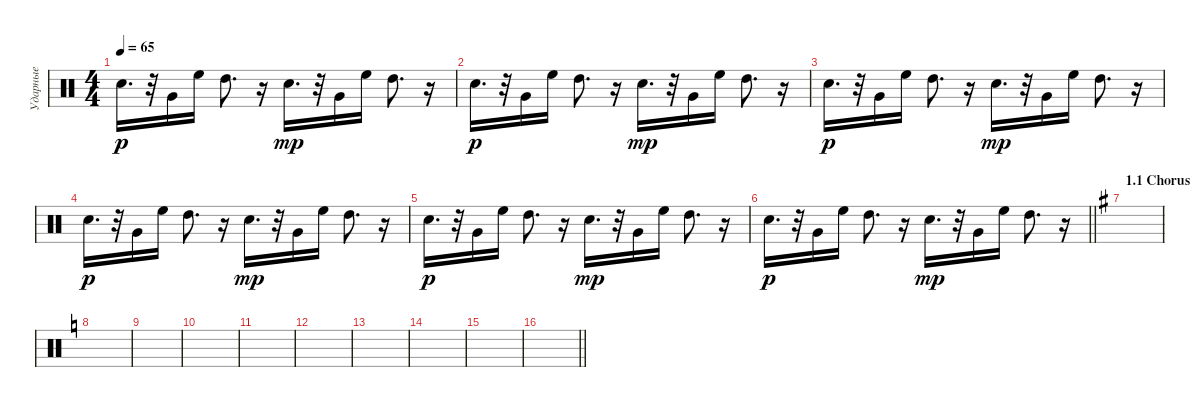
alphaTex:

\track ("Ударные" "Ударные") {instrument percussion}
\staff {score}
\articulation defaults
\ts (4 4)
\tempo 65
\clef neutral
\ks c "Electric Snare (hit)".16{d dy p}
r.32 "Very Low Tom (hit)".16 "High Floor Tom (hit)".16 "High Tom (hit)".8{d} r.16 "Electric Snare (hit)".16{d dy mp} r.32 "Very Low Tom (hit)".16 "High Floor Tom (hit)".16 "High Tom (hit)".8{d} r.16 |
"Electric Snare (hit)".16{d dy p} r.32 "Very Low Tom (hit)".16 "High Floor Tom (hit)".16 "High Tom (hit)".8{d} r.16 "Electric Snare (hit)".16{d dy mp} r.32 "Very Low Tom (hit)".16 "High Floor Tom (hit)".16 "High Tom (hit)".8{d} r.16 |
"Electric Snare (hit)".16{d dy p} r.32 "Very Low Tom (hit)".16 "High Floor Tom (hit)".16 "High Tom (hit)".8{d} r.16 "Electric Snare (hit)".16{d dy mp} r.32 "Very Low Tom (hit)".16 "High Floor Tom (hit)".16 "High Tom (hit)".8{d} r.16 |
"Electric Snare (hit)".16{d dy p} r.32 "Very Low Tom (hit)".16 "High Floor Tom (hit)".16 "High Tom (hit)".8{d} r.16 "Electric Snare (hit)".16{d dy mp} r.32 "Very Low Tom (hit)".16 "High Floor Tom (hit)".16 "High Tom (hit)".8{d} r.16 |
"Electric Snare (hit)".16{d dy p} r.32 "Very Low Tom (hit)".16 "High Floor Tom (hit)".16 "High Tom (hit)".8{d} r.16 "Electric Snare (hit)".16{d dy mp} r.32 "Very Low Tom (hit)".16 "High Floor Tom (hit)".16 "High Tom (hit)".8{d} r.16 |
\barLineRight lightlight "Electric Snare (hit)".16{d dy p}
r.32 "Very Low Tom (hit)".16 "High Floor Tom (hit)".16 "High Tom (hit)".8{d} r.16 "Electric Snare (hit)".16{d dy mp} r.32 "Very Low Tom (hit)".16 "High Floor Tom (hit)".16 "High Tom (hit)".8{d} r.16 |
\section ("" "1.1 Chorus ")
\ks eminor
|
\ks c
|
|
|
|
|
|
|
|
\barLineRight lightlight
